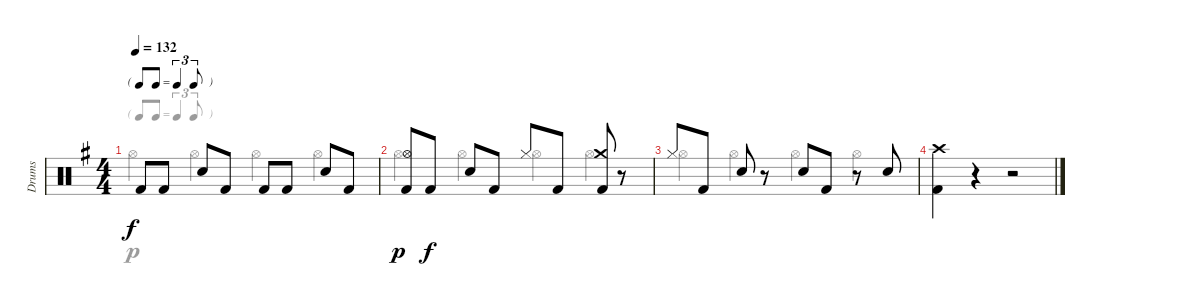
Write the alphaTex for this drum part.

\track ("Drums" "Drums") {instrument percussion}
\staff {score}
\articulation defaults
\voice
\ts (4 4)
\tf triplet8th
\tempo 132
\clef neutral
\ks g "Kick (hit) 2".8{dy f} "Kick (hit) 2".8 "Electric Snare (hit)".8 "Kick (hit) 2".8 "Kick (hit) 2".8 "Kick (hit) 2".8 "Electric Snare (hit)".8 "Kick (hit) 2".8
|
("Hi-Hat (open)" "Kick (hit) 2").8{dy p} "Kick (hit) 2".8{dy f} "Electric Snare (hit)".8 "Kick (hit) 2".8 "Hi-Hat (closed)".8 "Kick (hit) 2".8 ("Crash medium (hit)" "Kick (hit) 2").8 r.8 |
"Hi-Hat (closed)".8 "Kick (hit) 2".8 "Electric Snare (hit)".8 r.8 "Electric Snare (hit)".8 "Kick (hit) 2".8 r.8 "Electric Snare (hit)".8 |
("Crash high (hit)" "Kick (hit) 2").4 r.4 r.2
\voice
\clef neutral
\ottava regular
\simile none
\ks g "Hi-Hat (open)".4{dy p} "Hi-Hat (open)".4 "Hi-Hat (open)".4 "Hi-Hat (open)".4
|
"Hi-Hat (open)".4 "Hi-Hat (open)".4 "Hi-Hat (open)".4 "Hi-Hat (open)".4 |
"Hi-Hat (open)".4 "Hi-Hat (open)".4 "Hi-Hat (open)".4 "Hi-Hat (open)".4 |
